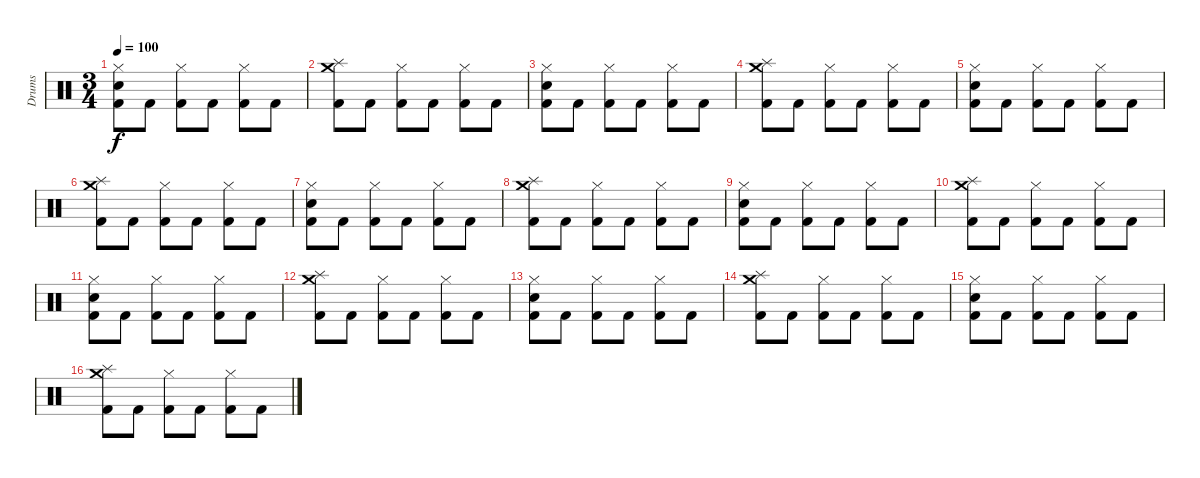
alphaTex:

\track ("Drums" "Drums") {instrument percussion}
\staff {score}
\articulation defaults
\ts (3 4)
\tempo 100
\clef neutral
\ks c
("Hi-Hat (closed)" "Electric Snare (hit)" "Kick (hit) 2").8{dy f} "Kick (hit) 2".8 ("Hi-Hat (closed)" "Kick (hit) 2").8 "Kick (hit) 2".8 ("Hi-Hat (closed)" "Kick (hit) 2").8 "Kick (hit) 2".8 |
("Crash medium (hit)" "Splash (hit)" "Kick (hit) 2").8 "Kick (hit) 2".8 ("Hi-Hat (closed)" "Kick (hit) 2").8 "Kick (hit) 2".8 ("Hi-Hat (closed)" "Kick (hit) 2").8 "Kick (hit) 2".8 |
("Hi-Hat (closed)" "Electric Snare (hit)" "Kick (hit) 2").8 "Kick (hit) 2".8 ("Hi-Hat (closed)" "Kick (hit) 2").8 "Kick (hit) 2".8 ("Hi-Hat (closed)" "Kick (hit) 2").8 "Kick (hit) 2".8 |
("Crash medium (hit)" "Splash (hit)" "Kick (hit) 2").8 "Kick (hit) 2".8 ("Hi-Hat (closed)" "Kick (hit) 2").8 "Kick (hit) 2".8 ("Hi-Hat (closed)" "Kick (hit) 2").8 "Kick (hit) 2".8 |
("Hi-Hat (closed)" "Electric Snare (hit)" "Kick (hit) 2").8 "Kick (hit) 2".8 ("Hi-Hat (closed)" "Kick (hit) 2").8 "Kick (hit) 2".8 ("Hi-Hat (closed)" "Kick (hit) 2").8 "Kick (hit) 2".8 |
("Crash medium (hit)" "Splash (hit)" "Kick (hit) 2").8 "Kick (hit) 2".8 ("Hi-Hat (closed)" "Kick (hit) 2").8 "Kick (hit) 2".8 ("Hi-Hat (closed)" "Kick (hit) 2").8 "Kick (hit) 2".8 |
("Hi-Hat (closed)" "Electric Snare (hit)" "Kick (hit) 2").8 "Kick (hit) 2".8 ("Hi-Hat (closed)" "Kick (hit) 2").8 "Kick (hit) 2".8 ("Hi-Hat (closed)" "Kick (hit) 2").8 "Kick (hit) 2".8 |
("Crash medium (hit)" "Splash (hit)" "Kick (hit) 2").8 "Kick (hit) 2".8 ("Hi-Hat (closed)" "Kick (hit) 2").8 "Kick (hit) 2".8 ("Hi-Hat (closed)" "Kick (hit) 2").8 "Kick (hit) 2".8 |
("Hi-Hat (closed)" "Electric Snare (hit)" "Kick (hit) 2").8 "Kick (hit) 2".8 ("Hi-Hat (closed)" "Kick (hit) 2").8 "Kick (hit) 2".8 ("Hi-Hat (closed)" "Kick (hit) 2").8 "Kick (hit) 2".8 |
("Crash medium (hit)" "Splash (hit)" "Kick (hit) 2").8 "Kick (hit) 2".8 ("Hi-Hat (closed)" "Kick (hit) 2").8 "Kick (hit) 2".8 ("Hi-Hat (closed)" "Kick (hit) 2").8 "Kick (hit) 2".8 |
("Hi-Hat (closed)" "Electric Snare (hit)" "Kick (hit) 2").8 "Kick (hit) 2".8 ("Hi-Hat (closed)" "Kick (hit) 2").8 "Kick (hit) 2".8 ("Hi-Hat (closed)" "Kick (hit) 2").8 "Kick (hit) 2".8 |
("Crash medium (hit)" "Splash (hit)" "Kick (hit) 2").8 "Kick (hit) 2".8 ("Hi-Hat (closed)" "Kick (hit) 2").8 "Kick (hit) 2".8 ("Hi-Hat (closed)" "Kick (hit) 2").8 "Kick (hit) 2".8 |
("Hi-Hat (closed)" "Electric Snare (hit)" "Kick (hit) 2").8 "Kick (hit) 2".8 ("Hi-Hat (closed)" "Kick (hit) 2").8 "Kick (hit) 2".8 ("Hi-Hat (closed)" "Kick (hit) 2").8 "Kick (hit) 2".8 |
("Crash medium (hit)" "Splash (hit)" "Kick (hit) 2").8 "Kick (hit) 2".8 ("Hi-Hat (closed)" "Kick (hit) 2").8 "Kick (hit) 2".8 ("Hi-Hat (closed)" "Kick (hit) 2").8 "Kick (hit) 2".8 |
("Hi-Hat (closed)" "Electric Snare (hit)" "Kick (hit) 2").8 "Kick (hit) 2".8 ("Hi-Hat (closed)" "Kick (hit) 2").8 "Kick (hit) 2".8 ("Hi-Hat (closed)" "Kick (hit) 2").8 "Kick (hit) 2".8 |
("Crash medium (hit)" "Splash (hit)" "Kick (hit) 2").8 "Kick (hit) 2".8 ("Hi-Hat (closed)" "Kick (hit) 2").8 "Kick (hit) 2".8 ("Hi-Hat (closed)" "Kick (hit) 2").8 "Kick (hit) 2".8
